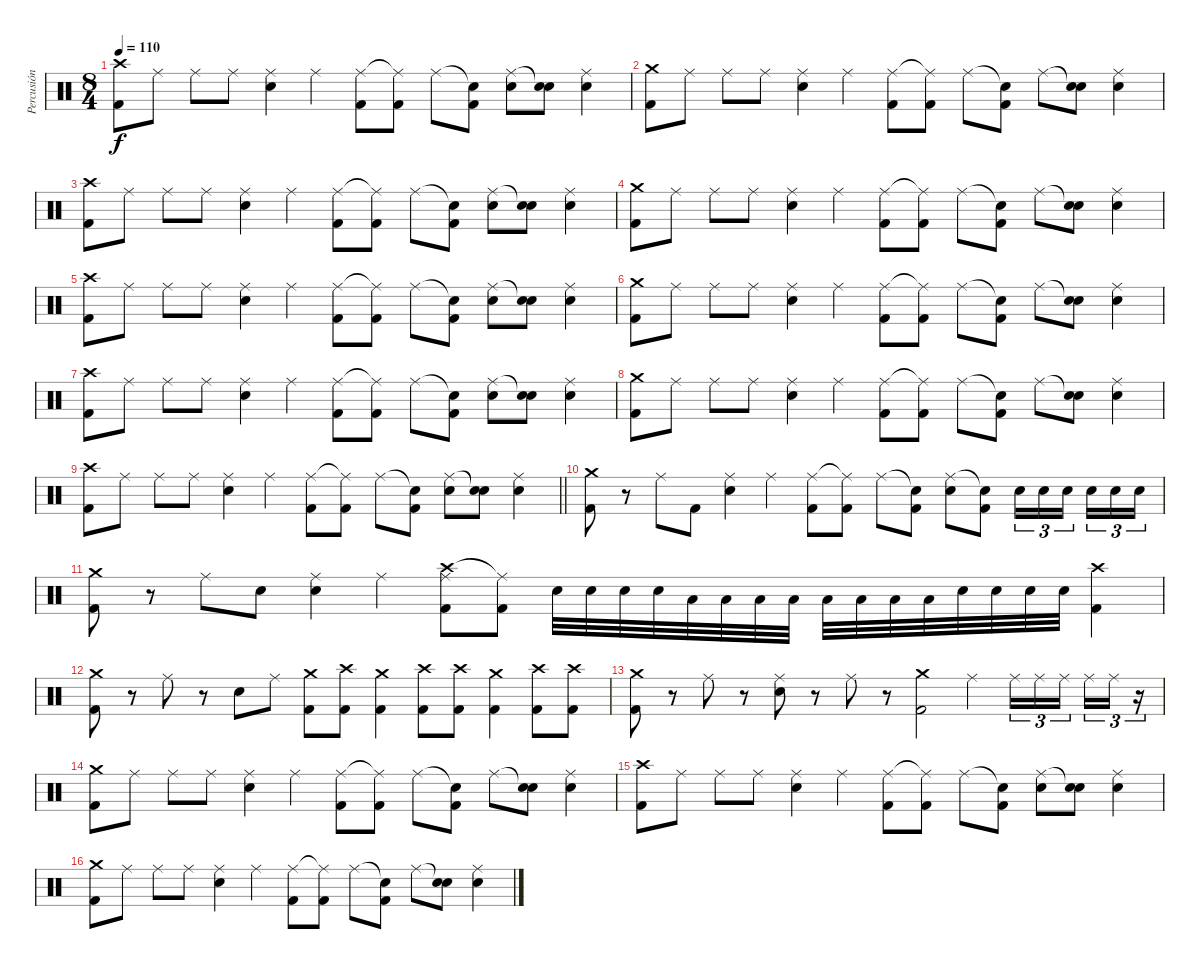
\track ("Percusión" "Percusión") {instrument percussion}
\staff {score}
\articulation defaults
\ts (8 4)
\tempo 110
\clef neutral
\ks c
("Crash high (hit)" "Kick (hit) 2").8{dy f} "Ride (middle)".8 "Ride (middle)".8 "Ride (middle)".8 ("Ride (middle)" "Electric Snare (hit)").4 "Ride (middle)".4 ("Ride (middle)" "Kick (hit) 2").8 ("Ride (middle)"{t} "Kick (hit) 2").8 "Ride (middle)".8 ("Snare (hit)"{t} "Kick (hit) 2").8 ("Ride (middle)" "Electric Snare (hit)").8 ("Snare (hit)"{t} "Electric Snare (hit)").8 ("Ride (middle)" "Electric Snare (hit)").4 |
("Crash medium (hit)" "Kick (hit) 2").8 "Ride (middle)".8 "Ride (middle)".8 "Ride (middle)".8 ("Ride (middle)" "Electric Snare (hit)").4 "Ride (middle)".4 ("Ride (middle)" "Kick (hit) 2").8 ("Ride (middle)"{t} "Kick (hit) 2").8 "Ride (middle)".8 ("Snare (hit)"{t} "Kick (hit) 2").8 "Ride (middle)".8 ("Snare (hit)"{t} "Electric Snare (hit)").8 ("Ride (middle)" "Electric Snare (hit)").4 |
("Crash high (hit)" "Kick (hit) 2").8 "Ride (middle)".8 "Ride (middle)".8 "Ride (middle)".8 ("Ride (middle)" "Electric Snare (hit)").4 "Ride (middle)".4 ("Ride (middle)" "Kick (hit) 2").8 ("Ride (middle)"{t} "Kick (hit) 2").8 "Ride (middle)".8 ("Snare (hit)"{t} "Kick (hit) 2").8 ("Ride (middle)" "Electric Snare (hit)").8 ("Snare (hit)"{t} "Electric Snare (hit)").8 ("Ride (middle)" "Electric Snare (hit)").4 |
("Crash medium (hit)" "Kick (hit) 2").8 "Ride (middle)".8 "Ride (middle)".8 "Ride (middle)".8 ("Ride (middle)" "Electric Snare (hit)").4 "Ride (middle)".4 ("Ride (middle)" "Kick (hit) 2").8 ("Ride (middle)"{t} "Kick (hit) 2").8 "Ride (middle)".8 ("Snare (hit)"{t} "Kick (hit) 2").8 "Ride (middle)".8 ("Snare (hit)"{t} "Electric Snare (hit)").8 ("Ride (middle)" "Electric Snare (hit)").4 |
("Crash high (hit)" "Kick (hit) 2").8 "Ride (middle)".8 "Ride (middle)".8 "Ride (middle)".8 ("Ride (middle)" "Electric Snare (hit)").4 "Ride (middle)".4 ("Ride (middle)" "Kick (hit) 2").8 ("Ride (middle)"{t} "Kick (hit) 2").8 "Ride (middle)".8 ("Snare (hit)"{t} "Kick (hit) 2").8 ("Ride (middle)" "Electric Snare (hit)").8 ("Snare (hit)"{t} "Electric Snare (hit)").8 ("Ride (middle)" "Electric Snare (hit)").4 |
("Crash medium (hit)" "Kick (hit) 2").8 "Ride (middle)".8 "Ride (middle)".8 "Ride (middle)".8 ("Ride (middle)" "Electric Snare (hit)").4 "Ride (middle)".4 ("Ride (middle)" "Kick (hit) 2").8 ("Ride (middle)"{t} "Kick (hit) 2").8 "Ride (middle)".8 ("Snare (hit)"{t} "Kick (hit) 2").8 "Ride (middle)".8 ("Snare (hit)"{t} "Electric Snare (hit)").8 ("Ride (middle)" "Electric Snare (hit)").4 |
("Crash high (hit)" "Kick (hit) 2").8 "Ride (middle)".8 "Ride (middle)".8 "Ride (middle)".8 ("Ride (middle)" "Electric Snare (hit)").4 "Ride (middle)".4 ("Ride (middle)" "Kick (hit) 2").8 ("Ride (middle)"{t} "Kick (hit) 2").8 "Ride (middle)".8 ("Snare (hit)"{t} "Kick (hit) 2").8 ("Ride (middle)" "Electric Snare (hit)").8 ("Snare (hit)"{t} "Electric Snare (hit)").8 ("Ride (middle)" "Electric Snare (hit)").4 |
("Crash medium (hit)" "Kick (hit) 2").8 "Ride (middle)".8 "Ride (middle)".8 "Ride (middle)".8 ("Ride (middle)" "Electric Snare (hit)").4 "Ride (middle)".4 ("Ride (middle)" "Kick (hit) 2").8 ("Ride (middle)"{t} "Kick (hit) 2").8 "Ride (middle)".8 ("Snare (hit)"{t} "Kick (hit) 2").8 "Ride (middle)".8 ("Snare (hit)"{t} "Electric Snare (hit)").8 ("Ride (middle)" "Electric Snare (hit)").4 |
\barLineRight lightlight
("Crash high (hit)" "Kick (hit) 2").8 "Ride (middle)".8 "Ride (middle)".8 "Ride (middle)".8 ("Ride (middle)" "Electric Snare (hit)").4 "Ride (middle)".4 ("Ride (middle)" "Kick (hit) 2").8 ("Ride (middle)"{t} "Kick (hit) 2").8 "Ride (middle)".8 ("Snare (hit)"{t} "Kick (hit) 2").8 ("Ride (middle)" "Electric Snare (hit)").8 ("Snare (hit)"{t} "Electric Snare (hit)").8 ("Ride (middle)" "Electric Snare (hit)").4 |
("Crash medium (hit)" "Kick (hit) 2").8 r.8 "Ride (middle)".8 "Kick (hit) 2".8 ("Ride (middle)" "Electric Snare (hit)").4 "Ride (middle)".4 ("Ride (middle)" "Kick (hit) 2").8 ("Ride (middle)"{t} "Kick (hit) 2").8 "Ride (middle)".8 ("Snare (hit)"{t} "Kick (hit) 2").8 ("Ride (middle)" "Electric Snare (hit)").8 ("Snare (hit)"{t} "Kick (hit) 2").8 "Electric Snare (hit)".16{tu (3 2)} "Electric Snare (hit)".16{tu (3 2)} "Electric Snare (hit)".16{tu (3 2) beam splitsecondary} "Electric Snare (hit)".16{tu (3 2)} "Electric Snare (hit)".16{tu (3 2)} "Electric Snare (hit)".16{tu (3 2)} |
("Crash medium (hit)" "Kick (hit) 2").8 r.8 "Ride (middle)".8 "Electric Snare (hit)".8 ("Ride (middle)" "Electric Snare (hit)").4 "Ride (middle)".4 ("Crash high (hit)" "Ride (middle)" "Kick (hit) 2").8 ("Ride (middle)"{t} "Kick (hit) 2").8 "Electric Snare (hit)".32 "Electric Snare (hit)".32 "Electric Snare (hit)".32 "Electric Snare (hit)".32 "Low Tom (hit)".32 "Low Tom (hit)".32 "Low Tom (hit)".32 "Low Tom (hit)".32 "Low Floor Tom (hit)".32 "Low Floor Tom (hit)".32 "Low Floor Tom (hit)".32 "Low Floor Tom (hit)".32 "Electric Snare (hit)".32 "Electric Snare (hit)".32 "Electric Snare (hit)".32 "Electric Snare (hit)".32 ("Crash high (hit)" "Kick (hit) 2").4 |
("Crash medium (hit)" "Kick (hit) 2").8 r.8 "Ride (middle)".8 r.8 "Electric Snare (hit)".8 "Ride (middle)".8 ("Crash medium (hit)" "Kick (hit) 2").8 ("Crash high (hit)" "Kick (hit) 2").8 ("Crash medium (hit)" "Kick (hit) 2").4 ("Crash high (hit)" "Kick (hit) 2").8 ("Crash high (hit)" "Kick (hit) 2").8 ("Crash medium (hit)" "Kick (hit) 2").4 ("Crash high (hit)" "Kick (hit) 2").8 ("Crash high (hit)" "Kick (hit) 2").8 |
("Crash medium (hit)" "Kick (hit) 2").8 r.8 "Ride (middle)".8 r.8 ("Ride (middle)" "Electric Snare (hit)").8 r.8 "Ride (middle)".8 r.8 ("Crash medium (hit)" "Kick (hit) 2").2 "Ride (middle)".4 "Ride (middle)".16{tu (3 2)} "Ride (middle)".16{tu (3 2)} "Ride (middle)".16{tu (3 2) beam splitsecondary} "Ride (middle)".16{tu (3 2)} "Ride (middle)".16{tu (3 2)} r.16{tu (3 2)} |
("Crash medium (hit)" "Kick (hit) 2").8 "Ride (middle)".8 "Ride (middle)".8 "Ride (middle)".8 ("Ride (middle)" "Electric Snare (hit)").4 "Ride (middle)".4 ("Ride (middle)" "Kick (hit) 2").8 ("Ride (middle)"{t} "Kick (hit) 2").8 "Ride (middle)".8 ("Snare (hit)"{t} "Kick (hit) 2").8 "Ride (middle)".8 ("Snare (hit)"{t} "Electric Snare (hit)").8 ("Ride (middle)" "Electric Snare (hit)").4 |
("Crash high (hit)" "Kick (hit) 2").8 "Ride (middle)".8 "Ride (middle)".8 "Ride (middle)".8 ("Ride (middle)" "Electric Snare (hit)").4 "Ride (middle)".4 ("Ride (middle)" "Kick (hit) 2").8 ("Ride (middle)"{t} "Kick (hit) 2").8 "Ride (middle)".8 ("Snare (hit)"{t} "Kick (hit) 2").8 ("Ride (middle)" "Electric Snare (hit)").8 ("Snare (hit)"{t} "Electric Snare (hit)").8 ("Ride (middle)" "Electric Snare (hit)").4 |
("Crash medium (hit)" "Kick (hit) 2").8 "Ride (middle)".8 "Ride (middle)".8 "Ride (middle)".8 ("Ride (middle)" "Electric Snare (hit)").4 "Ride (middle)".4 ("Ride (middle)" "Kick (hit) 2").8 ("Ride (middle)"{t} "Kick (hit) 2").8 "Ride (middle)".8 ("Snare (hit)"{t} "Kick (hit) 2").8 "Ride (middle)".8 ("Snare (hit)"{t} "Electric Snare (hit)").8 ("Ride (middle)" "Electric Snare (hit)").4
